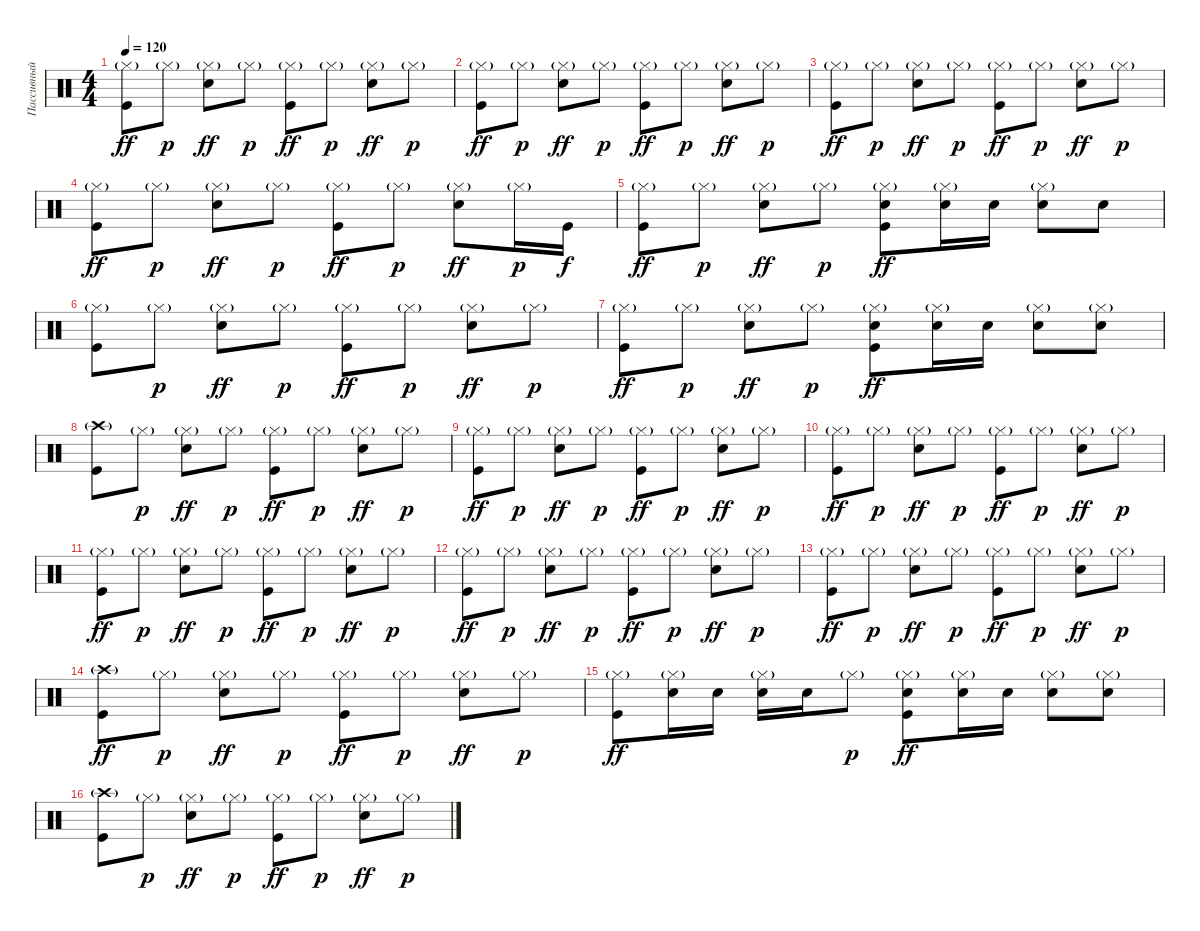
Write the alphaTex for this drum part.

\track ("Пассивный ударник" "Пассивный ") {instrument percussion}
\staff {score}
\articulation defaults
\ts (4 4)
\tempo 120
\clef neutral
\ks c
("Hi-Hat (closed)"{g} "Kick (hit)").8{dy ff} "Hi-Hat (closed)"{g}.8{dy p} ("Hi-Hat (closed)"{g} "Electric Snare (hit)").8{dy ff} "Hi-Hat (closed)"{g}.8{dy p} ("Hi-Hat (closed)"{g} "Kick (hit)").8{dy ff} "Hi-Hat (closed)"{g}.8{dy p} ("Hi-Hat (closed)"{g} "Electric Snare (hit)").8{dy ff} "Hi-Hat (closed)"{g}.8{dy p} |
("Hi-Hat (closed)"{g} "Kick (hit)").8{dy ff} "Hi-Hat (closed)"{g}.8{dy p} ("Hi-Hat (closed)"{g} "Electric Snare (hit)").8{dy ff} "Hi-Hat (closed)"{g}.8{dy p} ("Hi-Hat (closed)"{g} "Kick (hit)").8{dy ff} "Hi-Hat (closed)"{g}.8{dy p} ("Hi-Hat (closed)"{g} "Electric Snare (hit)").8{dy ff} "Hi-Hat (closed)"{g}.8{dy p} |
("Hi-Hat (closed)"{g} "Kick (hit)").8{dy ff} "Hi-Hat (closed)"{g}.8{dy p} ("Hi-Hat (closed)"{g} "Electric Snare (hit)").8{dy ff} "Hi-Hat (closed)"{g}.8{dy p} ("Hi-Hat (closed)"{g} "Kick (hit)").8{dy ff} "Hi-Hat (closed)"{g}.8{dy p} ("Hi-Hat (closed)"{g} "Electric Snare (hit)").8{dy ff} "Hi-Hat (closed)"{g}.8{dy p} |
("Hi-Hat (closed)"{g} "Kick (hit)").8{dy ff} "Hi-Hat (closed)"{g}.8{dy p} ("Hi-Hat (closed)"{g} "Electric Snare (hit)").8{dy ff} "Hi-Hat (closed)"{g}.8{dy p} ("Hi-Hat (closed)"{g} "Kick (hit)").8{dy ff} "Hi-Hat (closed)"{g}.8{dy p} ("Hi-Hat (closed)"{g} "Electric Snare (hit)").8{dy ff} "Hi-Hat (closed)"{g}.16{dy p} "Kick (hit)".16{dy f} |
("Hi-Hat (closed)"{g} "Kick (hit)").8{dy ff} "Hi-Hat (closed)"{g}.8{dy p} ("Hi-Hat (closed)"{g} "Electric Snare (hit)").8{dy ff} "Hi-Hat (closed)"{g}.8{dy p} ("Hi-Hat (closed)"{g} "Electric Snare (hit)" "Kick (hit)").8{dy ff} ("Hi-Hat (closed)"{g} "Electric Snare (hit)").16 "Electric Snare (hit)".16 ("Hi-Hat (closed)"{g} "Electric Snare (hit)").8 "Electric Snare (hit)".8 |
("Hi-Hat (closed)"{g} "Kick (hit)").8 "Hi-Hat (closed)"{g}.8{dy p} ("Hi-Hat (closed)"{g} "Electric Snare (hit)").8{dy ff} "Hi-Hat (closed)"{g}.8{dy p} ("Hi-Hat (closed)"{g} "Kick (hit)").8{dy ff} "Hi-Hat (closed)"{g}.8{dy p} ("Hi-Hat (closed)"{g} "Electric Snare (hit)").8{dy ff} "Hi-Hat (closed)"{g}.8{dy p} |
("Hi-Hat (closed)"{g} "Kick (hit)").8{dy ff} "Hi-Hat (closed)"{g}.8{dy p} ("Hi-Hat (closed)"{g} "Electric Snare (hit)").8{dy ff} "Hi-Hat (closed)"{g}.8{dy p} ("Hi-Hat (closed)"{g} "Electric Snare (hit)" "Kick (hit)").8{dy ff} ("Hi-Hat (closed)"{g} "Electric Snare (hit)").16 "Electric Snare (hit)".16 ("Hi-Hat (closed)"{g} "Electric Snare (hit)").8 ("Hi-Hat (closed)"{g} "Electric Snare (hit)").8 |
("Crash high (hit)"{g} "Kick (hit)").8 "Hi-Hat (closed)"{g}.8{dy p} ("Hi-Hat (closed)"{g} "Electric Snare (hit)").8{dy ff} "Hi-Hat (closed)"{g}.8{dy p} ("Hi-Hat (closed)"{g} "Kick (hit)").8{dy ff} "Hi-Hat (closed)"{g}.8{dy p} ("Hi-Hat (closed)"{g} "Electric Snare (hit)").8{dy ff} "Hi-Hat (closed)"{g}.8{dy p} |
("Hi-Hat (closed)"{g} "Kick (hit)").8{dy ff} "Hi-Hat (closed)"{g}.8{dy p} ("Hi-Hat (closed)"{g} "Electric Snare (hit)").8{dy ff} "Hi-Hat (closed)"{g}.8{dy p} ("Hi-Hat (closed)"{g} "Kick (hit)").8{dy ff} "Hi-Hat (closed)"{g}.8{dy p} ("Hi-Hat (closed)"{g} "Electric Snare (hit)").8{dy ff} "Hi-Hat (closed)"{g}.8{dy p} |
("Hi-Hat (closed)"{g} "Kick (hit)").8{dy ff} "Hi-Hat (closed)"{g}.8{dy p} ("Hi-Hat (closed)"{g} "Electric Snare (hit)").8{dy ff} "Hi-Hat (closed)"{g}.8{dy p} ("Hi-Hat (closed)"{g} "Kick (hit)").8{dy ff} "Hi-Hat (closed)"{g}.8{dy p} ("Hi-Hat (closed)"{g} "Electric Snare (hit)").8{dy ff} "Hi-Hat (closed)"{g}.8{dy p} |
("Hi-Hat (closed)"{g} "Kick (hit)").8{dy ff} "Hi-Hat (closed)"{g}.8{dy p} ("Hi-Hat (closed)"{g} "Electric Snare (hit)").8{dy ff} "Hi-Hat (closed)"{g}.8{dy p} ("Hi-Hat (closed)"{g} "Kick (hit)").8{dy ff} "Hi-Hat (closed)"{g}.8{dy p} ("Hi-Hat (closed)"{g} "Electric Snare (hit)").8{dy ff} "Hi-Hat (closed)"{g}.8{dy p} |
("Hi-Hat (closed)"{g} "Kick (hit)").8{dy ff} "Hi-Hat (closed)"{g}.8{dy p} ("Hi-Hat (closed)"{g} "Electric Snare (hit)").8{dy ff} "Hi-Hat (closed)"{g}.8{dy p} ("Hi-Hat (closed)"{g} "Kick (hit)").8{dy ff} "Hi-Hat (closed)"{g}.8{dy p} ("Hi-Hat (closed)"{g} "Electric Snare (hit)").8{dy ff} "Hi-Hat (closed)"{g}.8{dy p} |
("Hi-Hat (closed)"{g} "Kick (hit)").8{dy ff} "Hi-Hat (closed)"{g}.8{dy p} ("Hi-Hat (closed)"{g} "Electric Snare (hit)").8{dy ff} "Hi-Hat (closed)"{g}.8{dy p} ("Hi-Hat (closed)"{g} "Kick (hit)").8{dy ff} "Hi-Hat (closed)"{g}.8{dy p} ("Hi-Hat (closed)"{g} "Electric Snare (hit)").8{dy ff} "Hi-Hat (closed)"{g}.8{dy p} |
("Crash high (hit)"{g} "Kick (hit)").8{dy ff} "Hi-Hat (closed)"{g}.8{dy p} ("Hi-Hat (closed)"{g} "Electric Snare (hit)").8{dy ff} "Hi-Hat (closed)"{g}.8{dy p} ("Hi-Hat (closed)"{g} "Kick (hit)").8{dy ff} "Hi-Hat (closed)"{g}.8{dy p} ("Hi-Hat (closed)"{g} "Electric Snare (hit)").8{dy ff} "Hi-Hat (closed)"{g}.8{dy p} |
("Hi-Hat (closed)"{g} "Kick (hit)").8{dy ff} ("Hi-Hat (closed)"{g} "Electric Snare (hit)").16 "Electric Snare (hit)".16 ("Hi-Hat (closed)"{g} "Electric Snare (hit)").16 "Electric Snare (hit)".16 "Hi-Hat (closed)"{g}.8{dy p} ("Hi-Hat (closed)"{g} "Electric Snare (hit)" "Kick (hit)").8{dy ff} ("Hi-Hat (closed)"{g} "Electric Snare (hit)").16 "Electric Snare (hit)".16 ("Hi-Hat (closed)"{g} "Electric Snare (hit)").8 ("Hi-Hat (closed)"{g} "Electric Snare (hit)").8 |
("Crash high (hit)"{g} "Kick (hit)").8 "Hi-Hat (closed)"{g}.8{dy p} ("Hi-Hat (closed)"{g} "Electric Snare (hit)").8{dy ff} "Hi-Hat (closed)"{g}.8{dy p} ("Hi-Hat (closed)"{g} "Kick (hit)").8{dy ff} "Hi-Hat (closed)"{g}.8{dy p} ("Hi-Hat (closed)"{g} "Electric Snare (hit)").8{dy ff} "Hi-Hat (closed)"{g}.8{dy p}
